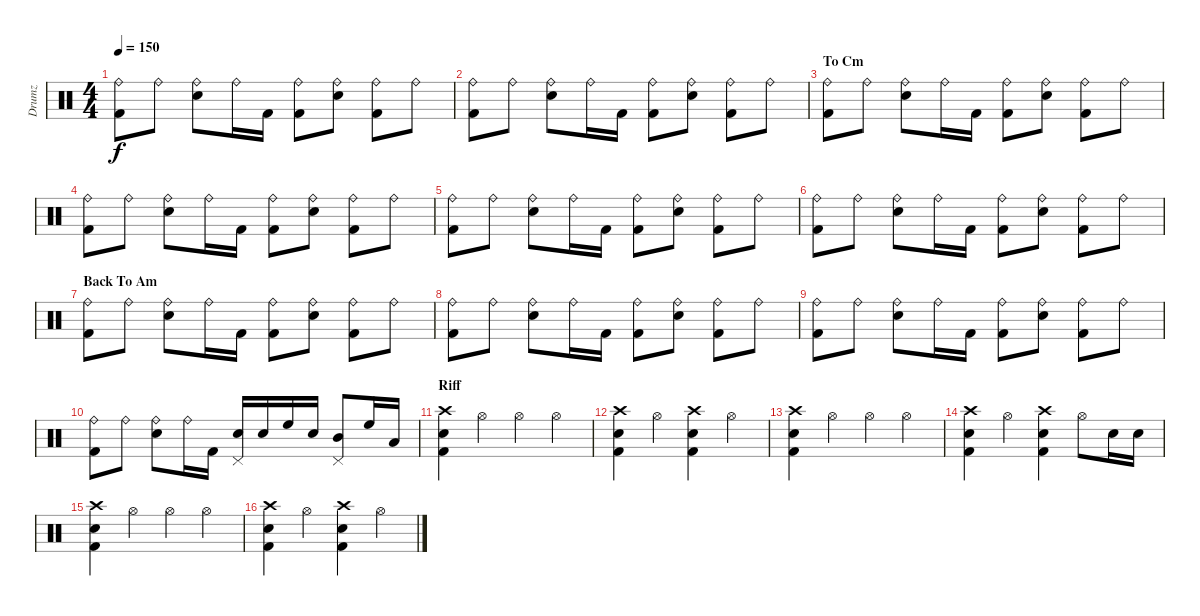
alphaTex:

\track ("Drumz" "Drumz") {instrument percussion}
\staff {score}
\articulation defaults
\ts (4 4)
\tempo 150
\clef neutral
\ks c
("Ride (bell)" "Kick (hit) 2").8{dy f} "Ride (bell)".8 ("Ride (bell)" "Snare (hit) 2").8 "Ride (bell)".16 "Kick (hit) 2".16 ("Ride (bell)" "Kick (hit) 2").8 ("Ride (bell)" "Snare (hit) 2").8 ("Ride (bell)" "Kick (hit) 2").8 "Ride (bell)".8 |
("Ride (bell)" "Kick (hit) 2").8 "Ride (bell)".8 ("Ride (bell)" "Snare (hit) 2").8 "Ride (bell)".16 "Kick (hit) 2".16 ("Ride (bell)" "Kick (hit) 2").8 ("Ride (bell)" "Snare (hit) 2").8 ("Ride (bell)" "Kick (hit) 2").8 "Ride (bell)".8 |
\section ("" "To Cm")
("Ride (bell)" "Kick (hit) 2").8 "Ride (bell)".8 ("Ride (bell)" "Snare (hit) 2").8 "Ride (bell)".16 "Kick (hit) 2".16 ("Ride (bell)" "Kick (hit) 2").8 ("Ride (bell)" "Snare (hit) 2").8 ("Ride (bell)" "Kick (hit) 2").8 "Ride (bell)".8 |
("Ride (bell)" "Kick (hit) 2").8 "Ride (bell)".8 ("Ride (bell)" "Snare (hit) 2").8 "Ride (bell)".16 "Kick (hit) 2".16 ("Ride (bell)" "Kick (hit) 2").8 ("Ride (bell)" "Snare (hit) 2").8 ("Ride (bell)" "Kick (hit) 2").8 "Ride (bell)".8 |
("Ride (bell)" "Kick (hit) 2").8 "Ride (bell)".8 ("Ride (bell)" "Snare (hit) 2").8 "Ride (bell)".16 "Kick (hit) 2".16 ("Ride (bell)" "Kick (hit) 2").8 ("Ride (bell)" "Snare (hit) 2").8 ("Ride (bell)" "Kick (hit) 2").8 "Ride (bell)".8 |
("Ride (bell)" "Kick (hit) 2").8 "Ride (bell)".8 ("Ride (bell)" "Snare (hit) 2").8 "Ride (bell)".16 "Kick (hit) 2".16 ("Ride (bell)" "Kick (hit) 2").8 ("Ride (bell)" "Snare (hit) 2").8 ("Ride (bell)" "Kick (hit) 2").8 "Ride (bell)".8 |
\section ("" "Back To Am")
("Ride (bell)" "Kick (hit) 2").8 "Ride (bell)".8 ("Ride (bell)" "Snare (hit) 2").8 "Ride (bell)".16 "Kick (hit) 2".16 ("Ride (bell)" "Kick (hit) 2").8 ("Ride (bell)" "Snare (hit) 2").8 ("Ride (bell)" "Kick (hit) 2").8 "Ride (bell)".8 |
("Ride (bell)" "Kick (hit) 2").8 "Ride (bell)".8 ("Ride (bell)" "Snare (hit) 2").8 "Ride (bell)".16 "Kick (hit) 2".16 ("Ride (bell)" "Kick (hit) 2").8 ("Ride (bell)" "Snare (hit) 2").8 ("Ride (bell)" "Kick (hit) 2").8 "Ride (bell)".8 |
("Ride (bell)" "Kick (hit) 2").8 "Ride (bell)".8 ("Ride (bell)" "Snare (hit) 2").8 "Ride (bell)".16 "Kick (hit) 2".16 ("Ride (bell)" "Kick (hit) 2").8 ("Ride (bell)" "Snare (hit) 2").8 ("Ride (bell)" "Kick (hit) 2").8 "Ride (bell)".8 |
("Ride (bell)" "Kick (hit) 2").8 "Ride (bell)".8 ("Ride (bell)" "Snare (hit) 2").8 "Ride (bell)".16 "Kick (hit) 2".16 ("Pedal Hi-Hat (hit)" "Snare (hit) 2").16 "Snare (hit) 2".16 "High Floor Tom (hit)".16 "Snare (hit) 2".16 ("Pedal Hi-Hat (hit)" "Mid Tom (hit)").8 "High Floor Tom (hit)".16 "Low Tom (hit)".16 |
\section ("" "Riff")
("Crash high (hit)" "Snare (hit) 2" "Kick (hit) 2").4 "Hi-Hat (open)".4 "Hi-Hat (open)".4 "Hi-Hat (open)".4 |
("Crash high (hit)" "Snare (hit) 2" "Kick (hit) 2").4 "Hi-Hat (open)".4 ("Crash high (hit)" "Snare (hit) 2" "Kick (hit) 2").4 "Hi-Hat (open)".4 |
("Crash high (hit)" "Snare (hit) 2" "Kick (hit) 2").4 "Hi-Hat (open)".4 "Hi-Hat (open)".4 "Hi-Hat (open)".4 |
("Crash high (hit)" "Snare (hit) 2" "Kick (hit) 2").4 "Hi-Hat (open)".4 ("Crash high (hit)" "Snare (hit) 2" "Kick (hit) 2").4 "Hi-Hat (open)".8 "Snare (hit) 2".16 "Snare (hit) 2".16 |
("Crash high (hit)" "Snare (hit) 2" "Kick (hit) 2").4 "Hi-Hat (open)".4 "Hi-Hat (open)".4 "Hi-Hat (open)".4 |
("Crash high (hit)" "Snare (hit) 2" "Kick (hit) 2").4 "Hi-Hat (open)".4 ("Crash high (hit)" "Snare (hit) 2" "Kick (hit) 2").4 "Hi-Hat (open)".4
